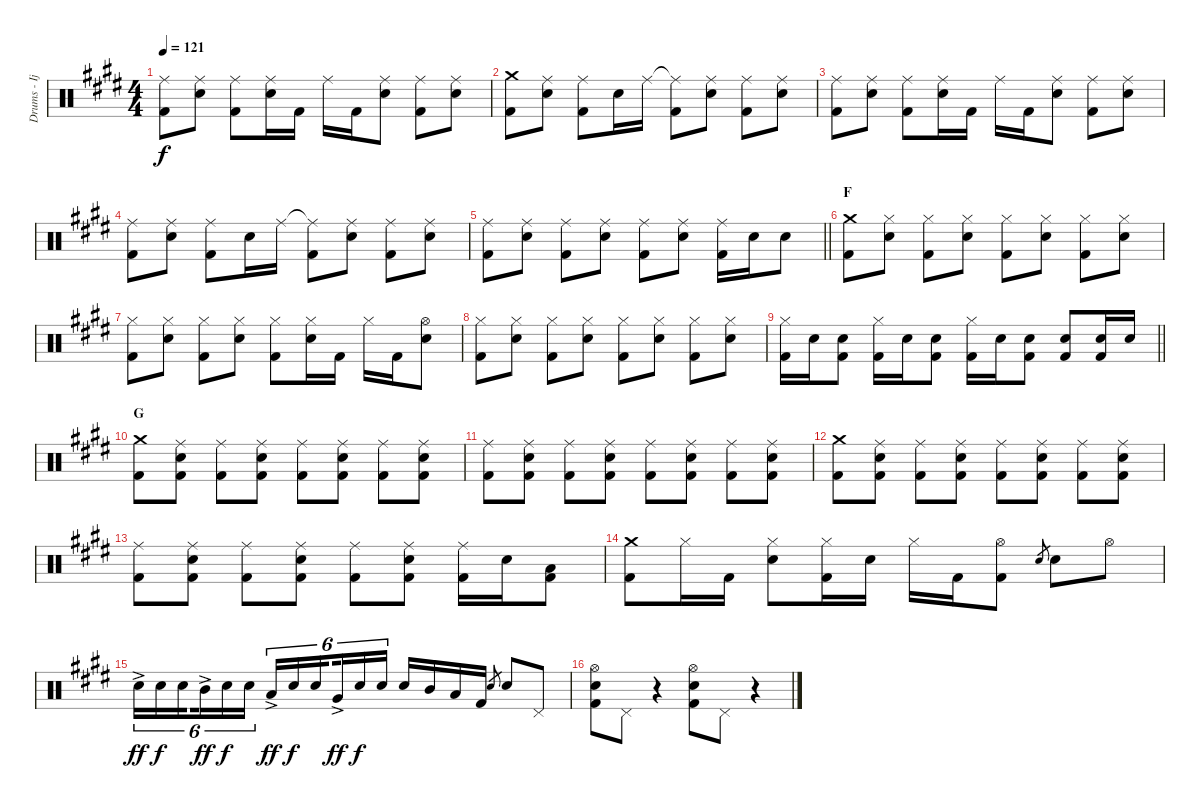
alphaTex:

\track ("Drums - Ijichi Kiyoshi" "Drums - Ij") {instrument percussion}
\staff {score}
\articulation defaults
\ts (4 4)
\tempo 121
\clef neutral
\ks e
("Ride (middle)" "Kick (hit) 2").8{dy f} ("Ride (middle)" "Electric Snare (hit)").8 ("Ride (middle)" "Kick (hit) 2").8 ("Ride (middle)" "Electric Snare (hit)").16 "Kick (hit) 2".16 "Ride (middle)".16 "Kick (hit) 2".16 ("Ride (middle)" "Electric Snare (hit)").8 ("Ride (middle)" "Kick (hit) 2").8 ("Ride (middle)" "Electric Snare (hit)").8 |
("Crash medium (hit)" "Kick (hit) 2").8 ("Ride (middle)" "Electric Snare (hit)").8 ("Ride (middle)" "Kick (hit) 2").8 "Electric Snare (hit)".16 "Ride (middle)".16 ("Ride (middle)"{t} "Kick (hit) 2").8 ("Ride (middle)" "Electric Snare (hit)").8 ("Ride (middle)" "Kick (hit) 2").8 ("Ride (middle)" "Electric Snare (hit)").8 |
("Ride (middle)" "Kick (hit) 2").8 ("Ride (middle)" "Electric Snare (hit)").8 ("Ride (middle)" "Kick (hit) 2").8 ("Ride (middle)" "Electric Snare (hit)").16 "Kick (hit) 2".16 "Ride (middle)".16 "Kick (hit) 2".16 ("Ride (middle)" "Electric Snare (hit)").8 ("Ride (middle)" "Kick (hit) 2").8 ("Ride (middle)" "Electric Snare (hit)").8 |
("Ride (middle)" "Kick (hit) 2").8 ("Ride (middle)" "Electric Snare (hit)").8 ("Ride (middle)" "Kick (hit) 2").8 "Electric Snare (hit)".16 "Ride (middle)".16 ("Ride (middle)"{t} "Kick (hit) 2").8 ("Ride (middle)" "Electric Snare (hit)").8 ("Ride (middle)" "Kick (hit) 2").8 ("Ride (middle)" "Electric Snare (hit)").8 |
\barLineRight lightlight
("Ride (middle)" "Kick (hit) 2").8 ("Ride (middle)" "Electric Snare (hit)").8 ("Ride (middle)" "Kick (hit) 2").8 ("Ride (middle)" "Electric Snare (hit)").8 ("Ride (middle)" "Kick (hit) 2").8 ("Ride (middle)" "Electric Snare (hit)").8 ("Ride (middle)" "Kick (hit) 2").16 "Electric Snare (hit)".16 "Electric Snare (hit)".8 |
\section ("" "F")
("Crash medium (hit)" "Kick (hit) 2").8 ("Hi-Hat (closed)" "Electric Snare (hit)").8 ("Hi-Hat (closed)" "Kick (hit) 2").8 ("Hi-Hat (closed)" "Electric Snare (hit)").8 ("Hi-Hat (closed)" "Kick (hit) 2").8 ("Hi-Hat (closed)" "Electric Snare (hit)").8 ("Hi-Hat (closed)" "Kick (hit) 2").8 ("Hi-Hat (closed)" "Electric Snare (hit)").8 |
("Hi-Hat (closed)" "Kick (hit) 2").8 ("Hi-Hat (closed)" "Electric Snare (hit)").8 ("Hi-Hat (closed)" "Kick (hit) 2").8 ("Hi-Hat (closed)" "Electric Snare (hit)").8 ("Hi-Hat (closed)" "Kick (hit) 2").8 ("Hi-Hat (closed)" "Electric Snare (hit)").16 "Kick (hit) 2".16 "Hi-Hat (closed)".16 "Kick (hit) 2".16 ("Hi-Hat (open)" "Electric Snare (hit)").8 |
("Hi-Hat (closed)" "Kick (hit) 2").8 ("Hi-Hat (closed)" "Electric Snare (hit)").8 ("Hi-Hat (closed)" "Kick (hit) 2").8 ("Hi-Hat (closed)" "Electric Snare (hit)").8 ("Hi-Hat (closed)" "Kick (hit) 2").8 ("Hi-Hat (closed)" "Electric Snare (hit)").8 ("Hi-Hat (closed)" "Kick (hit) 2").8 ("Hi-Hat (closed)" "Electric Snare (hit)").8 |
\barLineRight lightlight
("Hi-Hat (closed)" "Kick (hit) 2").16 "Electric Snare (hit)".16 ("Electric Snare (hit)" "Kick (hit) 2").8 ("Hi-Hat (closed)" "Kick (hit) 2").16 "Electric Snare (hit)".16 ("Electric Snare (hit)" "Kick (hit) 2").8 ("Hi-Hat (closed)" "Kick (hit) 2").16 "Electric Snare (hit)".16 ("Electric Snare (hit)" "Kick (hit) 2").8 ("Electric Snare (hit)" "Kick (hit) 2").8 ("Electric Snare (hit)" "Kick (hit) 2").16 "Electric Snare (hit)".16 |
\section ("" "G")
("Crash medium (hit)" "Kick (hit) 2").8 ("Ride (middle)" "Electric Snare (hit)" "Kick (hit) 2").8 ("Ride (middle)" "Kick (hit) 2").8 ("Ride (middle)" "Electric Snare (hit)" "Kick (hit) 2").8 ("Ride (middle)" "Kick (hit) 2").8 ("Ride (middle)" "Electric Snare (hit)" "Kick (hit) 2").8 ("Ride (middle)" "Kick (hit) 2").8 ("Ride (middle)" "Electric Snare (hit)" "Kick (hit) 2").8 |
("Ride (middle)" "Kick (hit) 2").8 ("Ride (middle)" "Electric Snare (hit)" "Kick (hit) 2").8 ("Ride (middle)" "Kick (hit) 2").8 ("Ride (middle)" "Electric Snare (hit)" "Kick (hit) 2").8 ("Ride (middle)" "Kick (hit) 2").8 ("Ride (middle)" "Electric Snare (hit)" "Kick (hit) 2").8 ("Ride (middle)" "Kick (hit) 2").8 ("Ride (middle)" "Electric Snare (hit)" "Kick (hit) 2").8 |
("Crash medium (hit)" "Kick (hit) 2").8 ("Ride (middle)" "Electric Snare (hit)" "Kick (hit) 2").8 ("Ride (middle)" "Kick (hit) 2").8 ("Ride (middle)" "Electric Snare (hit)" "Kick (hit) 2").8 ("Ride (middle)" "Kick (hit) 2").8 ("Ride (middle)" "Electric Snare (hit)" "Kick (hit) 2").8 ("Ride (middle)" "Kick (hit) 2").8 ("Ride (middle)" "Electric Snare (hit)" "Kick (hit) 2").8 |
("Ride (middle)" "Kick (hit) 2").8 ("Ride (middle)" "Electric Snare (hit)" "Kick (hit) 2").8 ("Ride (middle)" "Kick (hit) 2").8 ("Ride (middle)" "Electric Snare (hit)" "Kick (hit) 2").8 ("Ride (middle)" "Kick (hit) 2").8 ("Ride (middle)" "Electric Snare (hit)" "Kick (hit) 2").8 ("Ride (middle)" "Kick (hit) 2").16 "Electric Snare (hit)".16 ("Low Tom (hit)" "Kick (hit) 2").8 |
("Crash medium (hit)" "Kick (hit) 2").8 "Hi-Hat (closed)".16 "Kick (hit) 2".16 ("Hi-Hat (closed)" "Electric Snare (hit)").8 ("Hi-Hat (closed)" "Kick (hit) 2").16 "Electric Snare (hit)".16 "Hi-Hat (closed)".16 "Kick (hit) 2".16 ("Hi-Hat (open)" "Kick (hit) 2").8 "Electric Snare (hit)".8{gr} "Electric Snare (hit)".8 "Hi-Hat (open)".8 |
"Electric Snare (hit)"{ac}.16{tu (6 4) dy ff} "Electric Snare (hit)".16{tu (6 4) dy f} "Electric Snare (hit)".16{tu (6 4) beam splitsecondary} "Mid Tom (hit)"{ac}.16{tu (6 4) dy ff} "Electric Snare (hit)".16{tu (6 4) dy f} "Electric Snare (hit)".16{tu (6 4)} "Low Tom (hit)"{ac}.16{tu (6 4) dy ff} "Electric Snare (hit)".16{tu (6 4) dy f} "Electric Snare (hit)".16{tu (6 4) beam splitsecondary} "Very Low Tom (hit)"{ac}.16{tu (6 4) dy ff} "Electric Snare (hit)".16{tu (6 4) dy f} "Electric Snare (hit)".16{tu (6 4)} "Electric Snare (hit)".16 "Mid Tom (hit)".16 "Low Tom (hit)".16 "Kick (hit) 2".16 "Electric Snare (hit)".8{gr} "Electric Snare (hit)".8 "Pedal Hi-Hat (hit)".8 |
("Hi-Hat (open)" "Electric Snare (hit)" "Kick (hit) 2").8 "Pedal Hi-Hat (hit)".8 r.4 ("Hi-Hat (open)" "Electric Snare (hit)" "Kick (hit) 2").8 "Pedal Hi-Hat (hit)".8 r.4
